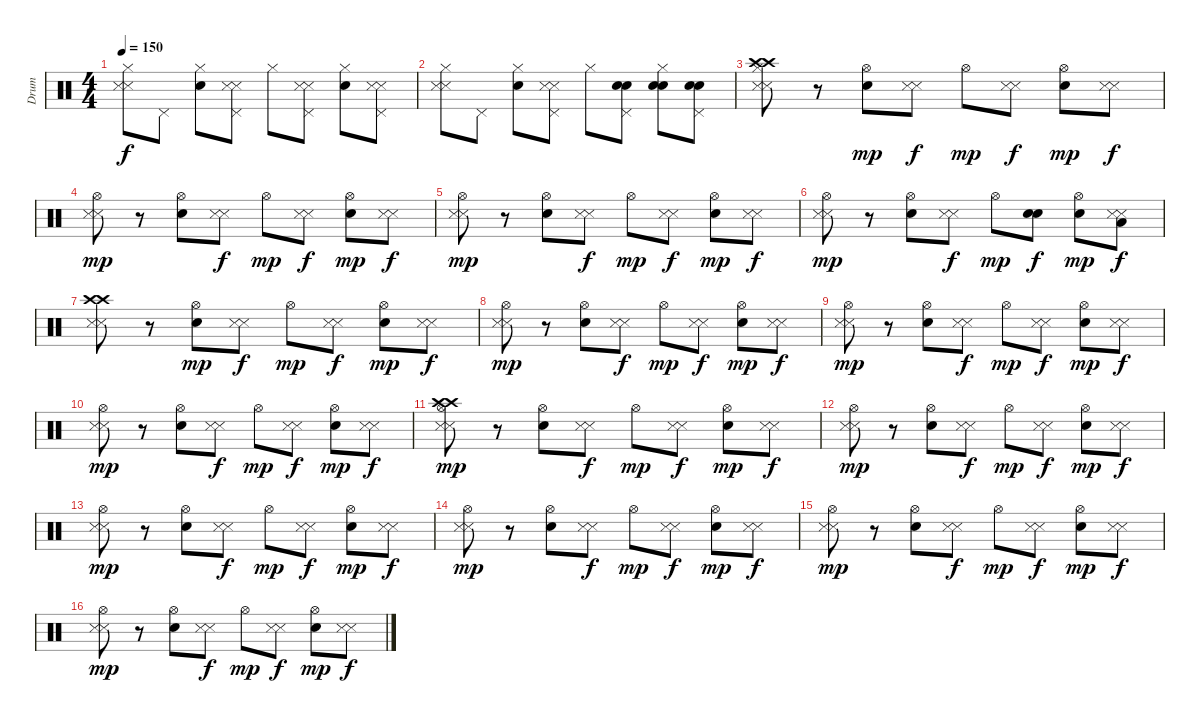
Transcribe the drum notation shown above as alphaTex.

\track ("Drum" "Drum") {instrument percussion}
\staff {score}
\articulation defaults
\ts (4 4)
\tempo 150
\clef neutral
\ks c
("Metronome (hit)" "Metronome (hit)" "Hi-Hat (closed)").8{dy f} "Pedal Hi-Hat (hit)".8 ("Electric Snare (hit)" "Hi-Hat (closed)").8 ("Metronome (hit)" "Metronome (hit)" "Pedal Hi-Hat (hit)").8 "Hi-Hat (closed)".8 ("Metronome (hit)" "Metronome (hit)" "Pedal Hi-Hat (hit)").8 ("Electric Snare (hit)" "Hi-Hat (closed)").8 ("Metronome (hit)" "Metronome (hit)" "Pedal Hi-Hat (hit)").8 |
("Metronome (hit)" "Metronome (hit)" "Hi-Hat (closed)").8 "Pedal Hi-Hat (hit)".8 ("Electric Snare (hit)" "Hi-Hat (closed)").8 ("Metronome (hit)" "Metronome (hit)" "Pedal Hi-Hat (hit)").8 "Hi-Hat (closed)".8 ("Electric Snare (hit)" "Electric Snare (hit)" "Pedal Hi-Hat (hit)").8 ("Electric Snare (hit)" "Electric Snare (hit)" "Hi-Hat (closed)").8 ("Electric Snare (hit)" "Electric Snare (hit)" "Pedal Hi-Hat (hit)").8 |
("Metronome (hit)" "Metronome (hit)" "Crash high (hit)" "Crash high (hit)" "Hi-Hat (closed)").8 r.8 ("Electric Snare (hit)" "Hi-Hat (open)").8{dy mp} ("Metronome (hit)" "Metronome (hit)").8{dy f} "Hi-Hat (open)".8{dy mp} ("Metronome (hit)" "Metronome (hit)").8{dy f} ("Electric Snare (hit)" "Hi-Hat (open)").8{dy mp} ("Metronome (hit)" "Metronome (hit)").8{dy f} |
("Metronome (hit)" "Metronome (hit)" "Hi-Hat (open)").8{dy mp} r.8 ("Electric Snare (hit)" "Hi-Hat (open)").8 ("Metronome (hit)" "Metronome (hit)").8{dy f} "Hi-Hat (open)".8{dy mp} ("Metronome (hit)" "Metronome (hit)").8{dy f} ("Electric Snare (hit)" "Hi-Hat (open)").8{dy mp} ("Metronome (hit)" "Metronome (hit)").8{dy f} |
("Metronome (hit)" "Metronome (hit)" "Hi-Hat (open)").8{dy mp} r.8 ("Electric Snare (hit)" "Hi-Hat (open)").8 ("Metronome (hit)" "Metronome (hit)").8{dy f} "Hi-Hat (open)".8{dy mp} ("Metronome (hit)" "Metronome (hit)").8{dy f} ("Electric Snare (hit)" "Hi-Hat (open)").8{dy mp} ("Metronome (hit)" "Metronome (hit)").8{dy f} |
("Metronome (hit)" "Metronome (hit)" "Hi-Hat (open)").8{dy mp} r.8 ("Electric Snare (hit)" "Hi-Hat (open)").8 ("Metronome (hit)" "Metronome (hit)").8{dy f} "Hi-Hat (open)".8{dy mp} ("Electric Snare (hit)" "Electric Snare (hit)").8{dy f} ("Electric Snare (hit)" "Hi-Hat (open)").8{dy mp} ("Metronome (hit)" "Metronome (hit)" "Low Floor Tom (hit)").8{dy f} |
("Metronome (hit)" "Metronome (hit)" "Crash high (hit)" "Crash high (hit)").8 r.8 ("Electric Snare (hit)" "Hi-Hat (open)").8{dy mp} ("Metronome (hit)" "Metronome (hit)").8{dy f} "Hi-Hat (open)".8{dy mp} ("Metronome (hit)" "Metronome (hit)").8{dy f} ("Electric Snare (hit)" "Hi-Hat (open)").8{dy mp} ("Metronome (hit)" "Metronome (hit)").8{dy f} |
("Metronome (hit)" "Metronome (hit)" "Hi-Hat (open)").8{dy mp} r.8 ("Electric Snare (hit)" "Hi-Hat (open)").8 ("Metronome (hit)" "Metronome (hit)").8{dy f} "Hi-Hat (open)".8{dy mp} ("Metronome (hit)" "Metronome (hit)").8{dy f} ("Electric Snare (hit)" "Hi-Hat (open)").8{dy mp} ("Metronome (hit)" "Metronome (hit)").8{dy f} |
("Metronome (hit)" "Metronome (hit)" "Hi-Hat (open)").8{dy mp} r.8 ("Electric Snare (hit)" "Hi-Hat (open)").8 ("Metronome (hit)" "Metronome (hit)").8{dy f} "Hi-Hat (open)".8{dy mp} ("Metronome (hit)" "Metronome (hit)").8{dy f} ("Electric Snare (hit)" "Hi-Hat (open)").8{dy mp} ("Metronome (hit)" "Metronome (hit)").8{dy f} |
("Metronome (hit)" "Metronome (hit)" "Hi-Hat (open)").8{dy mp} r.8 ("Electric Snare (hit)" "Hi-Hat (open)").8 ("Metronome (hit)" "Metronome (hit)").8{dy f} "Hi-Hat (open)".8{dy mp} ("Metronome (hit)" "Metronome (hit)").8{dy f} ("Electric Snare (hit)" "Hi-Hat (open)").8{dy mp} ("Metronome (hit)" "Metronome (hit)").8{dy f} |
("Metronome (hit)" "Metronome (hit)" "Crash high (hit)" "Crash high (hit)" "Hi-Hat (open)").8{dy mp} r.8 ("Electric Snare (hit)" "Hi-Hat (open)").8 ("Metronome (hit)" "Metronome (hit)").8{dy f} "Hi-Hat (open)".8{dy mp} ("Metronome (hit)" "Metronome (hit)").8{dy f} ("Electric Snare (hit)" "Hi-Hat (open)").8{dy mp} ("Metronome (hit)" "Metronome (hit)").8{dy f} |
("Metronome (hit)" "Metronome (hit)" "Hi-Hat (open)").8{dy mp} r.8 ("Electric Snare (hit)" "Hi-Hat (open)").8 ("Metronome (hit)" "Metronome (hit)").8{dy f} "Hi-Hat (open)".8{dy mp} ("Metronome (hit)" "Metronome (hit)").8{dy f} ("Electric Snare (hit)" "Hi-Hat (open)").8{dy mp} ("Metronome (hit)" "Metronome (hit)").8{dy f} |
("Metronome (hit)" "Metronome (hit)" "Hi-Hat (open)").8{dy mp} r.8 ("Electric Snare (hit)" "Hi-Hat (open)").8 ("Metronome (hit)" "Metronome (hit)").8{dy f} "Hi-Hat (open)".8{dy mp} ("Metronome (hit)" "Metronome (hit)").8{dy f} ("Electric Snare (hit)" "Hi-Hat (open)").8{dy mp} ("Metronome (hit)" "Metronome (hit)").8{dy f} |
("Metronome (hit)" "Metronome (hit)" "Hi-Hat (open)").8{dy mp} r.8 ("Electric Snare (hit)" "Hi-Hat (open)").8 ("Metronome (hit)" "Metronome (hit)").8{dy f} "Hi-Hat (open)".8{dy mp} ("Metronome (hit)" "Metronome (hit)").8{dy f} ("Electric Snare (hit)" "Hi-Hat (open)").8{dy mp} ("Metronome (hit)" "Metronome (hit)").8{dy f} |
("Metronome (hit)" "Metronome (hit)" "Hi-Hat (open)").8{dy mp} r.8 ("Electric Snare (hit)" "Hi-Hat (open)").8 ("Metronome (hit)" "Metronome (hit)").8{dy f} "Hi-Hat (open)".8{dy mp} ("Metronome (hit)" "Metronome (hit)").8{dy f} ("Electric Snare (hit)" "Hi-Hat (open)").8{dy mp} ("Metronome (hit)" "Metronome (hit)").8{dy f} |
("Metronome (hit)" "Metronome (hit)" "Hi-Hat (open)").8{dy mp} r.8 ("Electric Snare (hit)" "Hi-Hat (open)").8 ("Metronome (hit)" "Metronome (hit)").8{dy f} "Hi-Hat (open)".8{dy mp} ("Metronome (hit)" "Metronome (hit)").8{dy f} ("Electric Snare (hit)" "Hi-Hat (open)").8{dy mp} ("Metronome (hit)" "Metronome (hit)").8{dy f}
